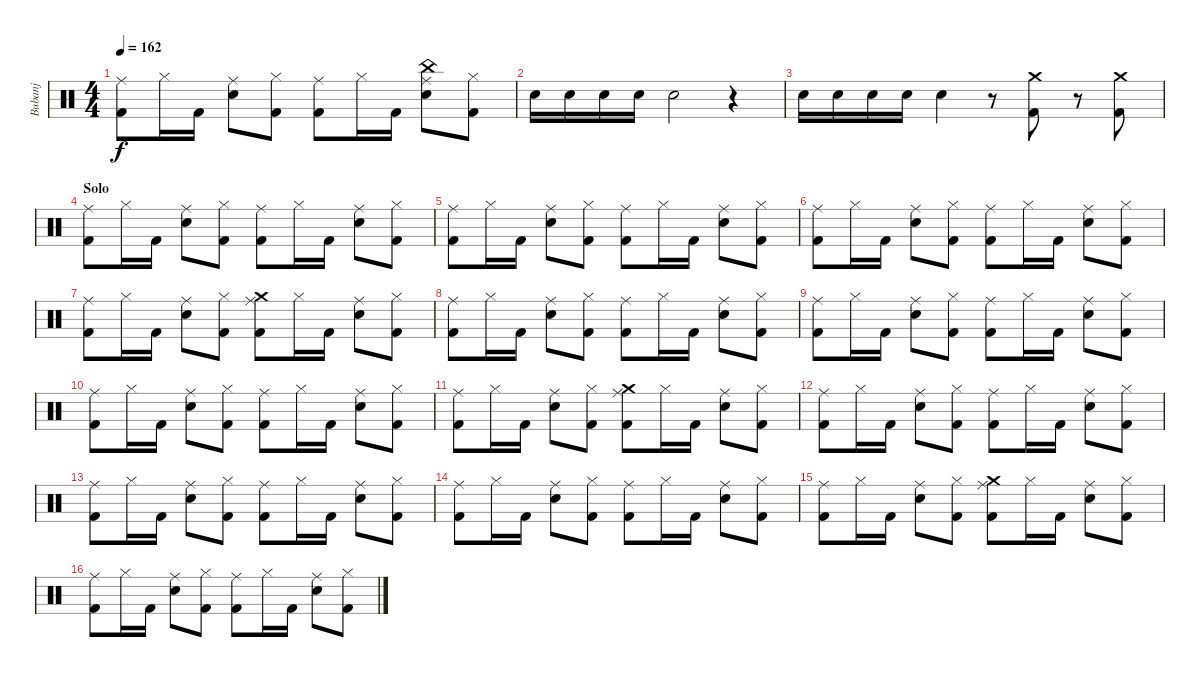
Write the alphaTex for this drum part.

\track ("Bubanj" "Bubanj") {instrument percussion}
\staff {score}
\articulation defaults
\ts (4 4)
\tempo 162
\clef neutral
\ks c
("Ride (middle)" "Kick (hit) 2").8{dy f} "Hi-Hat (closed)".16 "Kick (hit) 2".16 ("Ride (middle)" "Snare (hit) 2").8 ("Hi-Hat (closed)" "Kick (hit) 2").8 ("Ride (middle)" "Kick (hit) 2").8 "Hi-Hat (closed)".16 "Kick (hit) 2".16 ("Ride (middle)" "Snare (hit) 2" "China (hit)").8 ("Hi-Hat (closed)" "Kick (hit) 2").8 |
"Snare (hit) 2".16 "Snare (hit) 2".16 "Snare (hit) 2".16 "Snare (hit) 2".16 "Snare (hit) 2".2 r.4 |
"Snare (hit) 2".16 "Snare (hit) 2".16 "Snare (hit) 2".16 "Snare (hit) 2".16 "Snare (hit) 2".4 r.8 ("Kick (hit) 2" "Crash medium (hit)").8 r.8 ("Kick (hit) 2" "Crash medium (hit)").8 |
\section ("" "Solo")
("Ride (middle)" "Kick (hit) 2").8 "Hi-Hat (closed)".16 "Kick (hit) 2".16 ("Ride (middle)" "Snare (hit) 2").8 ("Hi-Hat (closed)" "Kick (hit) 2").8 ("Ride (middle)" "Kick (hit) 2").8 "Hi-Hat (closed)".16 "Kick (hit) 2".16 ("Ride (middle)" "Snare (hit) 2").8 ("Hi-Hat (closed)" "Kick (hit) 2").8 |
("Ride (middle)" "Kick (hit) 2").8 "Hi-Hat (closed)".16 "Kick (hit) 2".16 ("Ride (middle)" "Snare (hit) 2").8 ("Hi-Hat (closed)" "Kick (hit) 2").8 ("Ride (middle)" "Kick (hit) 2").8 "Hi-Hat (closed)".16 "Kick (hit) 2".16 ("Ride (middle)" "Snare (hit) 2").8 ("Hi-Hat (closed)" "Kick (hit) 2").8 |
("Ride (middle)" "Kick (hit) 2").8 "Hi-Hat (closed)".16 "Kick (hit) 2".16 ("Ride (middle)" "Snare (hit) 2").8 ("Hi-Hat (closed)" "Kick (hit) 2").8 ("Ride (middle)" "Kick (hit) 2").8 "Hi-Hat (closed)".16 "Kick (hit) 2".16 ("Ride (middle)" "Snare (hit) 2").8 ("Hi-Hat (closed)" "Kick (hit) 2").8 |
("Ride (middle)" "Kick (hit) 2").8 "Hi-Hat (closed)".16 "Kick (hit) 2".16 ("Ride (middle)" "Snare (hit) 2").8 ("Hi-Hat (closed)" "Kick (hit) 2").8 ("Ride (middle)" "Kick (hit) 2" "Crash medium (hit)").8 "Hi-Hat (closed)".16 "Kick (hit) 2".16 ("Ride (middle)" "Snare (hit) 2").8 ("Hi-Hat (closed)" "Kick (hit) 2").8 |
("Ride (middle)" "Kick (hit) 2").8 "Hi-Hat (closed)".16 "Kick (hit) 2".16 ("Ride (middle)" "Snare (hit) 2").8 ("Hi-Hat (closed)" "Kick (hit) 2").8 ("Ride (middle)" "Kick (hit) 2").8 "Hi-Hat (closed)".16 "Kick (hit) 2".16 ("Ride (middle)" "Snare (hit) 2").8 ("Hi-Hat (closed)" "Kick (hit) 2").8 |
("Ride (middle)" "Kick (hit) 2").8 "Hi-Hat (closed)".16 "Kick (hit) 2".16 ("Ride (middle)" "Snare (hit) 2").8 ("Hi-Hat (closed)" "Kick (hit) 2").8 ("Ride (middle)" "Kick (hit) 2").8 "Hi-Hat (closed)".16 "Kick (hit) 2".16 ("Ride (middle)" "Snare (hit) 2").8 ("Hi-Hat (closed)" "Kick (hit) 2").8 |
("Ride (middle)" "Kick (hit) 2").8 "Hi-Hat (closed)".16 "Kick (hit) 2".16 ("Ride (middle)" "Snare (hit) 2").8 ("Hi-Hat (closed)" "Kick (hit) 2").8 ("Ride (middle)" "Kick (hit) 2").8 "Hi-Hat (closed)".16 "Kick (hit) 2".16 ("Ride (middle)" "Snare (hit) 2").8 ("Hi-Hat (closed)" "Kick (hit) 2").8 |
("Ride (middle)" "Kick (hit) 2").8 "Hi-Hat (closed)".16 "Kick (hit) 2".16 ("Ride (middle)" "Snare (hit) 2").8 ("Hi-Hat (closed)" "Kick (hit) 2").8 ("Ride (middle)" "Kick (hit) 2" "Crash medium (hit)").8 "Hi-Hat (closed)".16 "Kick (hit) 2".16 ("Ride (middle)" "Snare (hit) 2").8 ("Hi-Hat (closed)" "Kick (hit) 2").8 |
("Ride (middle)" "Kick (hit) 2").8 "Hi-Hat (closed)".16 "Kick (hit) 2".16 ("Ride (middle)" "Snare (hit) 2").8 ("Hi-Hat (closed)" "Kick (hit) 2").8 ("Ride (middle)" "Kick (hit) 2").8 "Hi-Hat (closed)".16 "Kick (hit) 2".16 ("Ride (middle)" "Snare (hit) 2").8 ("Hi-Hat (closed)" "Kick (hit) 2").8 |
("Ride (middle)" "Kick (hit) 2").8 "Hi-Hat (closed)".16 "Kick (hit) 2".16 ("Ride (middle)" "Snare (hit) 2").8 ("Hi-Hat (closed)" "Kick (hit) 2").8 ("Ride (middle)" "Kick (hit) 2").8 "Hi-Hat (closed)".16 "Kick (hit) 2".16 ("Ride (middle)" "Snare (hit) 2").8 ("Hi-Hat (closed)" "Kick (hit) 2").8 |
("Ride (middle)" "Kick (hit) 2").8 "Hi-Hat (closed)".16 "Kick (hit) 2".16 ("Ride (middle)" "Snare (hit) 2").8 ("Hi-Hat (closed)" "Kick (hit) 2").8 ("Ride (middle)" "Kick (hit) 2").8 "Hi-Hat (closed)".16 "Kick (hit) 2".16 ("Ride (middle)" "Snare (hit) 2").8 ("Hi-Hat (closed)" "Kick (hit) 2").8 |
("Ride (middle)" "Kick (hit) 2").8 "Hi-Hat (closed)".16 "Kick (hit) 2".16 ("Ride (middle)" "Snare (hit) 2").8 ("Hi-Hat (closed)" "Kick (hit) 2").8 ("Ride (middle)" "Kick (hit) 2" "Crash medium (hit)").8 "Hi-Hat (closed)".16 "Kick (hit) 2".16 ("Ride (middle)" "Snare (hit) 2").8 ("Hi-Hat (closed)" "Kick (hit) 2").8 |
("Ride (middle)" "Kick (hit) 2").8 "Hi-Hat (closed)".16 "Kick (hit) 2".16 ("Ride (middle)" "Snare (hit) 2").8 ("Hi-Hat (closed)" "Kick (hit) 2").8 ("Ride (middle)" "Kick (hit) 2").8 "Hi-Hat (closed)".16 "Kick (hit) 2".16 ("Ride (middle)" "Snare (hit) 2").8 ("Hi-Hat (closed)" "Kick (hit) 2").8
